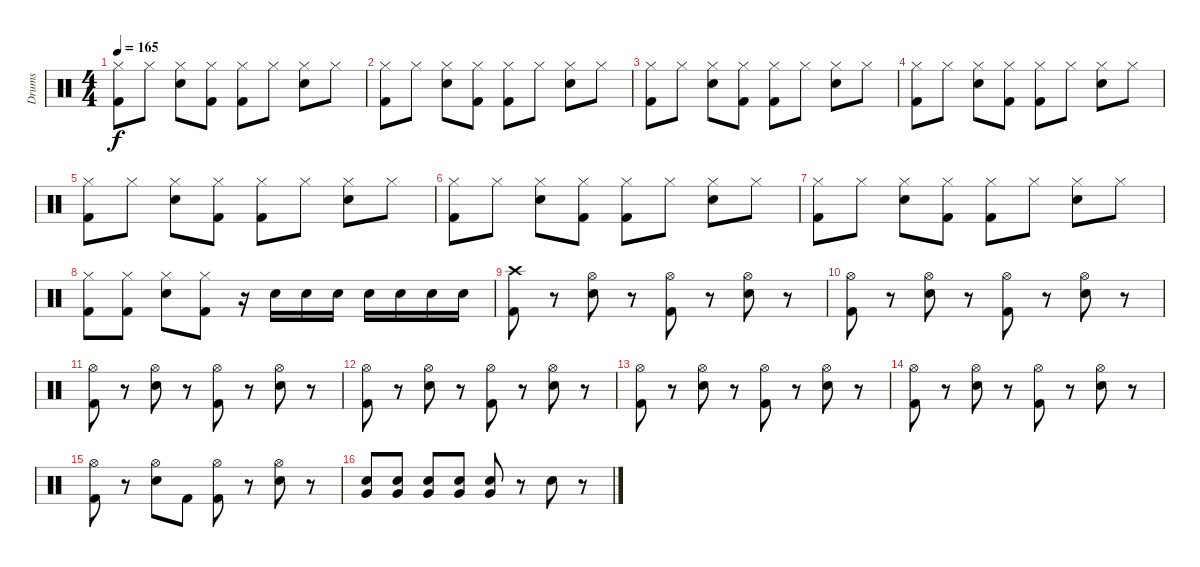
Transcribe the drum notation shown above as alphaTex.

\track ("Drums" "Drums") {instrument percussion}
\staff {score}
\articulation defaults
\ts (4 4)
\tempo 165
\clef neutral
\ks c
("Kick (hit) 2" "Hi-Hat (closed)").8{dy f} "Hi-Hat (closed)".8 ("Electric Snare (hit)" "Hi-Hat (closed)").8 ("Kick (hit) 2" "Hi-Hat (closed)").8 ("Kick (hit) 2" "Hi-Hat (closed)").8 "Hi-Hat (closed)".8 ("Electric Snare (hit)" "Hi-Hat (closed)").8 "Hi-Hat (closed)".8 |
("Kick (hit) 2" "Hi-Hat (closed)").8 "Hi-Hat (closed)".8 ("Electric Snare (hit)" "Hi-Hat (closed)").8 ("Kick (hit) 2" "Hi-Hat (closed)").8 ("Kick (hit) 2" "Hi-Hat (closed)").8 "Hi-Hat (closed)".8 ("Electric Snare (hit)" "Hi-Hat (closed)").8 "Hi-Hat (closed)".8 |
("Kick (hit) 2" "Hi-Hat (closed)").8 "Hi-Hat (closed)".8 ("Electric Snare (hit)" "Hi-Hat (closed)").8 ("Kick (hit) 2" "Hi-Hat (closed)").8 ("Kick (hit) 2" "Hi-Hat (closed)").8 "Hi-Hat (closed)".8 ("Electric Snare (hit)" "Hi-Hat (closed)").8 "Hi-Hat (closed)".8 |
("Kick (hit) 2" "Hi-Hat (closed)").8 "Hi-Hat (closed)".8 ("Electric Snare (hit)" "Hi-Hat (closed)").8 ("Kick (hit) 2" "Hi-Hat (closed)").8 ("Kick (hit) 2" "Hi-Hat (closed)").8 "Hi-Hat (closed)".8 ("Electric Snare (hit)" "Hi-Hat (closed)").8 "Hi-Hat (closed)".8 |
("Kick (hit) 2" "Hi-Hat (closed)").8 "Hi-Hat (closed)".8 ("Electric Snare (hit)" "Hi-Hat (closed)").8 ("Kick (hit) 2" "Hi-Hat (closed)").8 ("Kick (hit) 2" "Hi-Hat (closed)").8 "Hi-Hat (closed)".8 ("Electric Snare (hit)" "Hi-Hat (closed)").8 "Hi-Hat (closed)".8 |
("Kick (hit) 2" "Hi-Hat (closed)").8 "Hi-Hat (closed)".8 ("Electric Snare (hit)" "Hi-Hat (closed)").8 ("Kick (hit) 2" "Hi-Hat (closed)").8 ("Kick (hit) 2" "Hi-Hat (closed)").8 "Hi-Hat (closed)".8 ("Electric Snare (hit)" "Hi-Hat (closed)").8 "Hi-Hat (closed)".8 |
("Kick (hit) 2" "Hi-Hat (closed)").8 "Hi-Hat (closed)".8 ("Electric Snare (hit)" "Hi-Hat (closed)").8 ("Kick (hit) 2" "Hi-Hat (closed)").8 ("Kick (hit) 2" "Hi-Hat (closed)").8 "Hi-Hat (closed)".8 ("Electric Snare (hit)" "Hi-Hat (closed)").8 "Hi-Hat (closed)".8 |
("Hi-Hat (closed)" "Kick (hit) 2").8 ("Hi-Hat (closed)" "Kick (hit) 2").8 ("Hi-Hat (closed)" "Snare (hit) 2").8 ("Hi-Hat (closed)" "Kick (hit) 2").8 r.16 "Electric Snare (hit)".16 "Electric Snare (hit)".16 "Electric Snare (hit)".16 "Electric Snare (hit)".16 "Electric Snare (hit)".16 "Electric Snare (hit)".16 "Electric Snare (hit)".16 |
("Crash high (hit)" "Kick (hit) 2").8 r.8 ("Hi-Hat (open)" "Electric Snare (hit)").8 r.8 ("Hi-Hat (open)" "Kick (hit) 2").8 r.8 ("Hi-Hat (open)" "Electric Snare (hit)").8 r.8 |
("Hi-Hat (open)" "Kick (hit) 2").8 r.8 ("Hi-Hat (open)" "Electric Snare (hit)").8 r.8 ("Hi-Hat (open)" "Kick (hit) 2").8 r.8 ("Hi-Hat (open)" "Electric Snare (hit)").8 r.8 |
("Hi-Hat (open)" "Kick (hit) 2").8 r.8 ("Hi-Hat (open)" "Electric Snare (hit)").8 r.8 ("Hi-Hat (open)" "Kick (hit) 2").8 r.8 ("Hi-Hat (open)" "Electric Snare (hit)").8 r.8 |
("Hi-Hat (open)" "Kick (hit) 2").8 r.8 ("Hi-Hat (open)" "Electric Snare (hit)").8 r.8 ("Hi-Hat (open)" "Kick (hit) 2").8 r.8 ("Hi-Hat (open)" "Electric Snare (hit)").8 r.8 |
("Hi-Hat (open)" "Kick (hit) 2").8 r.8 ("Hi-Hat (open)" "Electric Snare (hit)").8 r.8 ("Hi-Hat (open)" "Kick (hit) 2").8 r.8 ("Hi-Hat (open)" "Electric Snare (hit)").8 r.8 |
("Hi-Hat (open)" "Kick (hit) 2").8 r.8 ("Hi-Hat (open)" "Electric Snare (hit)").8 r.8 ("Hi-Hat (open)" "Kick (hit) 2").8 r.8 ("Hi-Hat (open)" "Electric Snare (hit)").8 r.8 |
("Hi-Hat (open)" "Kick (hit) 2").8 r.8 ("Hi-Hat (open)" "Electric Snare (hit)").8 "Kick (hit) 2".8 ("Hi-Hat (open)" "Kick (hit) 2").8 r.8 ("Hi-Hat (open)" "Electric Snare (hit)").8 r.8 |
("Very Low Tom (hit)" "Electric Snare (hit)").8 ("Very Low Tom (hit)" "Electric Snare (hit)").8 ("Very Low Tom (hit)" "Electric Snare (hit)").8 ("Very Low Tom (hit)" "Electric Snare (hit)").8 ("Very Low Tom (hit)" "Electric Snare (hit)").8 r.8 "Electric Snare (hit)".8 r.8
